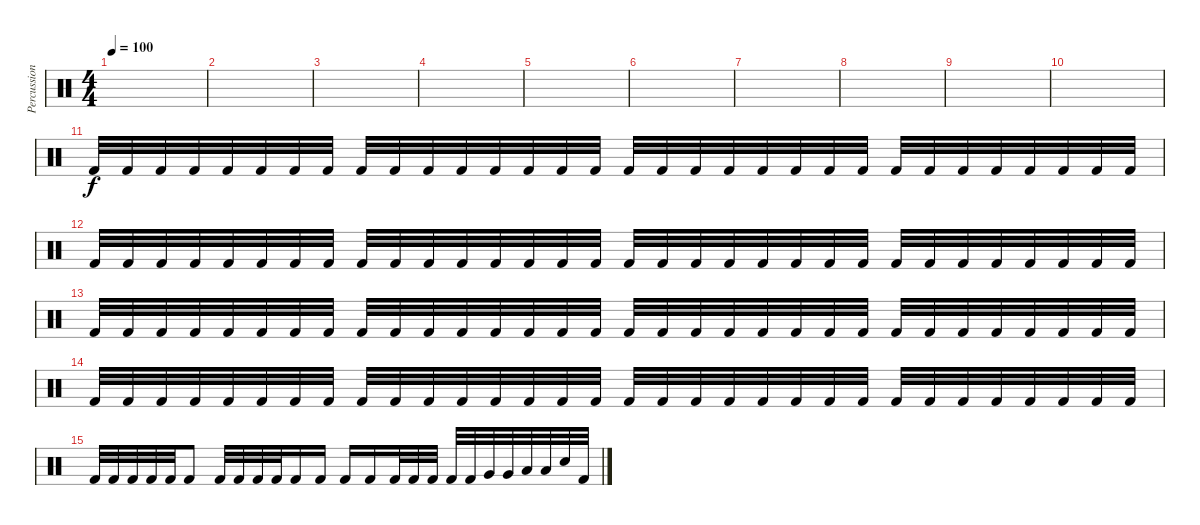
\track ("Percussions" "Percussion") {instrument percussion}
\staff {score}
\articulation defaults
\ts (4 4)
\tempo 100
\clef neutral
\ks c
|
|
|
|
|
|
|
|
|
|
"Kick (hit) 2".32 "Kick (hit) 2".32 "Kick (hit) 2".32 "Kick (hit) 2".32 "Kick (hit) 2".32 "Kick (hit) 2".32 "Kick (hit) 2".32 "Kick (hit) 2".32 "Kick (hit) 2".32 "Kick (hit) 2".32 "Kick (hit) 2".32 "Kick (hit) 2".32 "Kick (hit) 2".32 "Kick (hit) 2".32 "Kick (hit) 2".32 "Kick (hit) 2".32 "Kick (hit) 2".32 "Kick (hit) 2".32 "Kick (hit) 2".32 "Kick (hit) 2".32 "Kick (hit) 2".32 "Kick (hit) 2".32 "Kick (hit) 2".32 "Kick (hit) 2".32 "Kick (hit) 2".32 "Kick (hit) 2".32 "Kick (hit) 2".32 "Kick (hit) 2".32 "Kick (hit) 2".32 "Kick (hit) 2".32 "Kick (hit) 2".32 "Kick (hit) 2".32 |
"Kick (hit) 2".32 "Kick (hit) 2".32 "Kick (hit) 2".32 "Kick (hit) 2".32 "Kick (hit) 2".32 "Kick (hit) 2".32 "Kick (hit) 2".32 "Kick (hit) 2".32 "Kick (hit) 2".32 "Kick (hit) 2".32 "Kick (hit) 2".32 "Kick (hit) 2".32 "Kick (hit) 2".32 "Kick (hit) 2".32 "Kick (hit) 2".32 "Kick (hit) 2".32 "Kick (hit) 2".32 "Kick (hit) 2".32 "Kick (hit) 2".32 "Kick (hit) 2".32 "Kick (hit) 2".32 "Kick (hit) 2".32 "Kick (hit) 2".32 "Kick (hit) 2".32 "Kick (hit) 2".32 "Kick (hit) 2".32 "Kick (hit) 2".32 "Kick (hit) 2".32 "Kick (hit) 2".32 "Kick (hit) 2".32 "Kick (hit) 2".32 "Kick (hit) 2".32 |
"Kick (hit) 2".32 "Kick (hit) 2".32 "Kick (hit) 2".32 "Kick (hit) 2".32 "Kick (hit) 2".32 "Kick (hit) 2".32 "Kick (hit) 2".32 "Kick (hit) 2".32 "Kick (hit) 2".32 "Kick (hit) 2".32 "Kick (hit) 2".32 "Kick (hit) 2".32 "Kick (hit) 2".32 "Kick (hit) 2".32 "Kick (hit) 2".32 "Kick (hit) 2".32 "Kick (hit) 2".32 "Kick (hit) 2".32 "Kick (hit) 2".32 "Kick (hit) 2".32 "Kick (hit) 2".32 "Kick (hit) 2".32 "Kick (hit) 2".32 "Kick (hit) 2".32 "Kick (hit) 2".32 "Kick (hit) 2".32 "Kick (hit) 2".32 "Kick (hit) 2".32 "Kick (hit) 2".32 "Kick (hit) 2".32 "Kick (hit) 2".32 "Kick (hit) 2".32 |
"Kick (hit) 2".32 "Kick (hit) 2".32 "Kick (hit) 2".32 "Kick (hit) 2".32 "Kick (hit) 2".32 "Kick (hit) 2".32 "Kick (hit) 2".32 "Kick (hit) 2".32 "Kick (hit) 2".32 "Kick (hit) 2".32 "Kick (hit) 2".32 "Kick (hit) 2".32 "Kick (hit) 2".32 "Kick (hit) 2".32 "Kick (hit) 2".32 "Kick (hit) 2".32 "Kick (hit) 2".32 "Kick (hit) 2".32 "Kick (hit) 2".32 "Kick (hit) 2".32 "Kick (hit) 2".32 "Kick (hit) 2".32 "Kick (hit) 2".32 "Kick (hit) 2".32 "Kick (hit) 2".32 "Kick (hit) 2".32 "Kick (hit) 2".32 "Kick (hit) 2".32 "Kick (hit) 2".32 "Kick (hit) 2".32 "Kick (hit) 2".32 "Kick (hit) 2".32 |
"Kick (hit) 2".32 "Kick (hit) 2".32 "Kick (hit) 2".32 "Kick (hit) 2".32 "Kick (hit) 2".32 "Kick (hit) 2".8 "Kick (hit) 2".32 "Kick (hit) 2".32 "Kick (hit) 2".32 "Kick (hit) 2".32 "Kick (hit) 2".16 "Kick (hit) 2".16 "Kick (hit) 2".16 "Kick (hit) 2".16 "Kick (hit) 2".32 "Kick (hit) 2".32 "Kick (hit) 2".32 "Kick (hit) 2".32 "Kick (hit) 2".32 "Very Low Tom (hit)".32 "Very Low Tom (hit)".32 "Low Floor Tom (hit)".32 "Low Floor Tom (hit)".32 "Snare (hit) 2".32 "Kick (hit) 2".32
